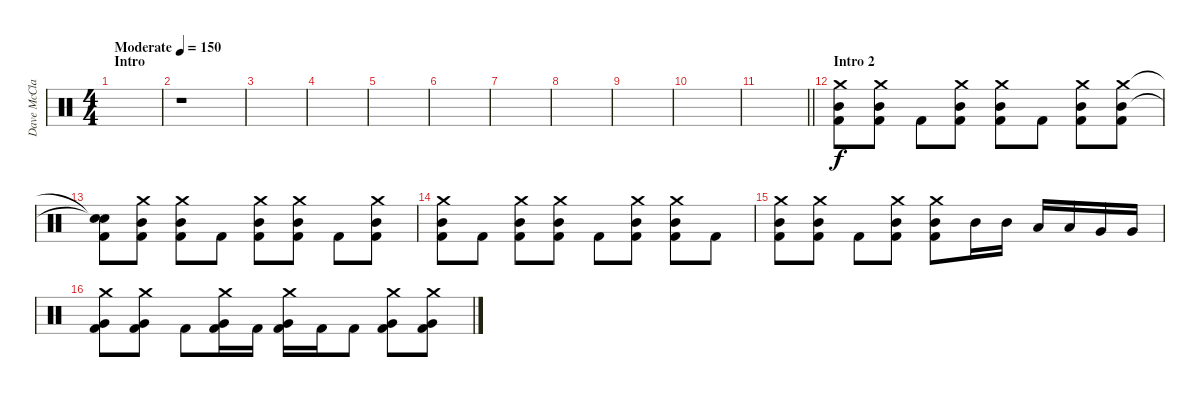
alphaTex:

\track ("Dave McClain" "Dave McCla") {instrument percussion}
\staff {score}
\articulation defaults
\ts (4 4)
\section ("" "Intro")
\tempo (150 "Moderate")
\tempo 145
\tempo (150 "Moderate")
\clef neutral
\ks c
|
r.1 |
|
|
|
|
|
|
|
|
\barLineRight lightlight
|
\section ("" "Intro 2")
("Crash medium (hit)" "Mid Tom (hit)" "Kick (hit) 2").8 ("Crash medium (hit)" "Mid Tom (hit)" "Kick (hit) 2").8 "Kick (hit) 2".8 ("Crash medium (hit)" "Mid Tom (hit)" "Kick (hit) 2").8 ("Crash medium (hit)" "Mid Tom (hit)" "Kick (hit) 2").8 "Kick (hit) 2".8 ("Crash medium (hit)" "Mid Tom (hit)" "Kick (hit) 2").8 ("Crash medium (hit)" "Mid Tom (hit)" "Kick (hit) 2").8 |
("Snare (hit)"{t} "Snare (hit)"{t} "Kick (hit) 2").8 ("Crash medium (hit)" "Mid Tom (hit)" "Kick (hit) 2").8 ("Crash medium (hit)" "Mid Tom (hit)" "Kick (hit) 2").8 "Kick (hit) 2".8 ("Crash medium (hit)" "Mid Tom (hit)" "Kick (hit) 2").8 ("Crash medium (hit)" "Mid Tom (hit)" "Kick (hit) 2").8 "Kick (hit) 2".8 ("Crash medium (hit)" "Mid Tom (hit)" "Kick (hit) 2").8 |
("Crash medium (hit)" "Mid Tom (hit)" "Kick (hit) 2").8 "Kick (hit) 2".8 ("Crash medium (hit)" "Mid Tom (hit)" "Kick (hit) 2").8 ("Crash medium (hit)" "Mid Tom (hit)" "Kick (hit) 2").8 "Kick (hit) 2".8 ("Crash medium (hit)" "Mid Tom (hit)" "Kick (hit) 2").8 ("Crash medium (hit)" "Mid Tom (hit)" "Kick (hit) 2").8 "Kick (hit) 2".8 |
("Crash medium (hit)" "Mid Tom (hit)" "Kick (hit) 2").8 ("Crash medium (hit)" "Mid Tom (hit)" "Kick (hit) 2").8 "Kick (hit) 2".8 ("Crash medium (hit)" "Mid Tom (hit)" "Kick (hit) 2").8 ("Crash medium (hit)" "Mid Tom (hit)" "Kick (hit) 2").8 "Mid Tom (hit)".16 "Mid Tom (hit)".16 "Low Tom (hit)".16 "Low Tom (hit)".16 "Very Low Tom (hit)".16 "Very Low Tom (hit)".16 |
("Crash medium (hit)" "Very Low Tom (hit)" "Kick (hit) 2").8 ("Crash medium (hit)" "Very Low Tom (hit)" "Kick (hit) 2").8 "Kick (hit) 2".8 ("Crash medium (hit)" "Very Low Tom (hit)" "Kick (hit) 2").16 "Kick (hit) 2".16 ("Crash medium (hit)" "Very Low Tom (hit)" "Kick (hit) 2").16 "Kick (hit) 2".16 "Kick (hit) 2".8 ("Crash medium (hit)" "Very Low Tom (hit)" "Kick (hit) 2").8 ("Crash medium (hit)" "Very Low Tom (hit)" "Kick (hit) 2").8
